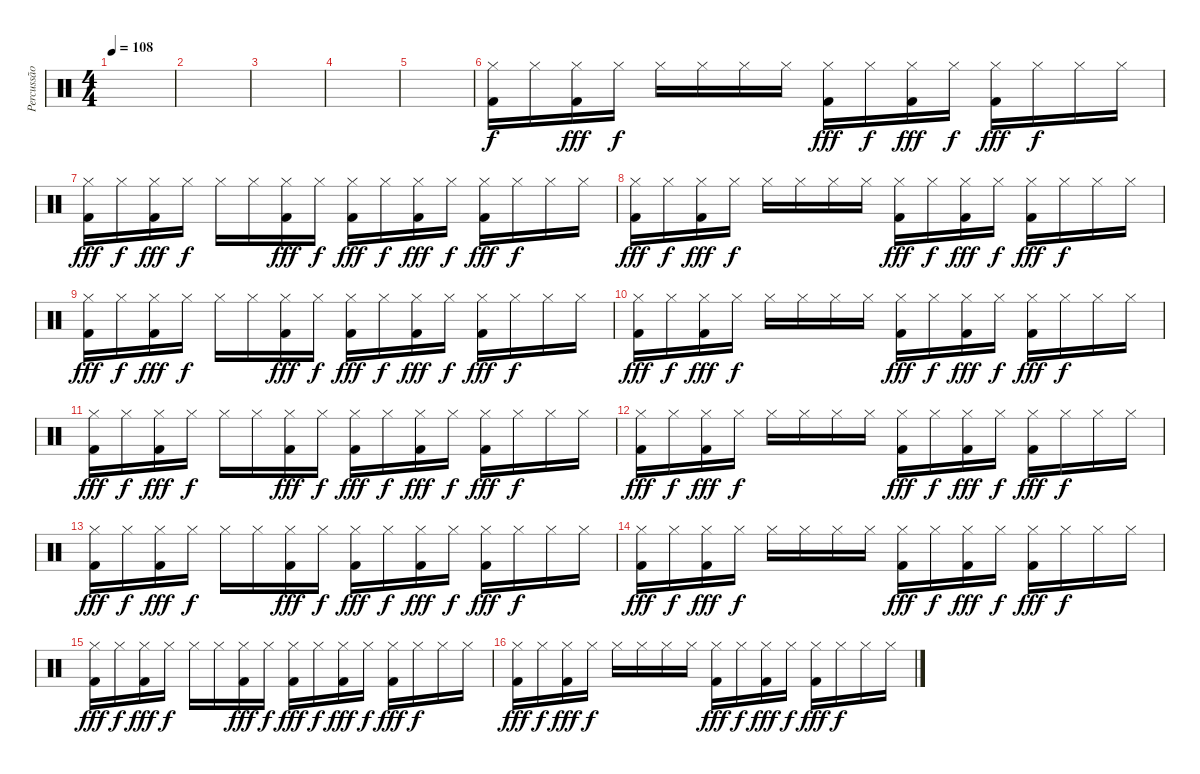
\track ("Percussão" "Percussão") {instrument percussion}
\staff {score}
\articulation defaults
\ts (4 4)
\tempo 108
\clef neutral
\ks c
|
|
|
|
|
("Hi-Hat (closed)" "Kick (hit) 2").16 "Hi-Hat (closed)".16{dy f} ("Hi-Hat (closed)" "Kick (hit) 2").16{dy fff} "Hi-Hat (closed)".16{dy f} "Hi-Hat (closed)".16 "Hi-Hat (closed)".16 "Hi-Hat (closed)".16 "Hi-Hat (closed)".16 ("Hi-Hat (closed)" "Kick (hit) 2").16{dy fff} "Hi-Hat (closed)".16{dy f} ("Hi-Hat (closed)" "Kick (hit) 2").16{dy fff} "Hi-Hat (closed)".16{dy f} ("Hi-Hat (closed)" "Kick (hit) 2").16{dy fff} "Hi-Hat (closed)".16{dy f} "Hi-Hat (closed)".16 "Hi-Hat (closed)".16 |
("Hi-Hat (closed)" "Kick (hit) 2").16{dy fff} "Hi-Hat (closed)".16{dy f} ("Hi-Hat (closed)" "Kick (hit) 2").16{dy fff} "Hi-Hat (closed)".16{dy f} "Hi-Hat (closed)".16 "Hi-Hat (closed)".16 ("Hi-Hat (closed)" "Kick (hit) 2").16{dy fff} "Hi-Hat (closed)".16{dy f} ("Hi-Hat (closed)" "Kick (hit) 2").16{dy fff} "Hi-Hat (closed)".16{dy f} ("Hi-Hat (closed)" "Kick (hit) 2").16{dy fff} "Hi-Hat (closed)".16{dy f} ("Hi-Hat (closed)" "Kick (hit) 2").16{dy fff} "Hi-Hat (closed)".16{dy f} "Hi-Hat (closed)".16 "Hi-Hat (closed)".16 |
("Hi-Hat (closed)" "Kick (hit) 2").16{dy fff} "Hi-Hat (closed)".16{dy f} ("Hi-Hat (closed)" "Kick (hit) 2").16{dy fff} "Hi-Hat (closed)".16{dy f} "Hi-Hat (closed)".16 "Hi-Hat (closed)".16 "Hi-Hat (closed)".16 "Hi-Hat (closed)".16 ("Hi-Hat (closed)" "Kick (hit) 2").16{dy fff} "Hi-Hat (closed)".16{dy f} ("Hi-Hat (closed)" "Kick (hit) 2").16{dy fff} "Hi-Hat (closed)".16{dy f} ("Hi-Hat (closed)" "Kick (hit) 2").16{dy fff} "Hi-Hat (closed)".16{dy f} "Hi-Hat (closed)".16 "Hi-Hat (closed)".16 |
("Hi-Hat (closed)" "Kick (hit) 2").16{dy fff} "Hi-Hat (closed)".16{dy f} ("Hi-Hat (closed)" "Kick (hit) 2").16{dy fff} "Hi-Hat (closed)".16{dy f} "Hi-Hat (closed)".16 "Hi-Hat (closed)".16 ("Hi-Hat (closed)" "Kick (hit) 2").16{dy fff} "Hi-Hat (closed)".16{dy f} ("Hi-Hat (closed)" "Kick (hit) 2").16{dy fff} "Hi-Hat (closed)".16{dy f} ("Hi-Hat (closed)" "Kick (hit) 2").16{dy fff} "Hi-Hat (closed)".16{dy f} ("Hi-Hat (closed)" "Kick (hit) 2").16{dy fff} "Hi-Hat (closed)".16{dy f} "Hi-Hat (closed)".16 "Hi-Hat (closed)".16 |
("Hi-Hat (closed)" "Kick (hit) 2").16{dy fff} "Hi-Hat (closed)".16{dy f} ("Hi-Hat (closed)" "Kick (hit) 2").16{dy fff} "Hi-Hat (closed)".16{dy f} "Hi-Hat (closed)".16 "Hi-Hat (closed)".16 "Hi-Hat (closed)".16 "Hi-Hat (closed)".16 ("Hi-Hat (closed)" "Kick (hit) 2").16{dy fff} "Hi-Hat (closed)".16{dy f} ("Hi-Hat (closed)" "Kick (hit) 2").16{dy fff} "Hi-Hat (closed)".16{dy f} ("Hi-Hat (closed)" "Kick (hit) 2").16{dy fff} "Hi-Hat (closed)".16{dy f} "Hi-Hat (closed)".16 "Hi-Hat (closed)".16 |
("Hi-Hat (closed)" "Kick (hit) 2").16{dy fff} "Hi-Hat (closed)".16{dy f} ("Hi-Hat (closed)" "Kick (hit) 2").16{dy fff} "Hi-Hat (closed)".16{dy f} "Hi-Hat (closed)".16 "Hi-Hat (closed)".16 ("Hi-Hat (closed)" "Kick (hit) 2").16{dy fff} "Hi-Hat (closed)".16{dy f} ("Hi-Hat (closed)" "Kick (hit) 2").16{dy fff} "Hi-Hat (closed)".16{dy f} ("Hi-Hat (closed)" "Kick (hit) 2").16{dy fff} "Hi-Hat (closed)".16{dy f} ("Hi-Hat (closed)" "Kick (hit) 2").16{dy fff} "Hi-Hat (closed)".16{dy f} "Hi-Hat (closed)".16 "Hi-Hat (closed)".16 |
("Hi-Hat (closed)" "Kick (hit) 2").16{dy fff} "Hi-Hat (closed)".16{dy f} ("Hi-Hat (closed)" "Kick (hit) 2").16{dy fff} "Hi-Hat (closed)".16{dy f} "Hi-Hat (closed)".16 "Hi-Hat (closed)".16 "Hi-Hat (closed)".16 "Hi-Hat (closed)".16 ("Hi-Hat (closed)" "Kick (hit) 2").16{dy fff} "Hi-Hat (closed)".16{dy f} ("Hi-Hat (closed)" "Kick (hit) 2").16{dy fff} "Hi-Hat (closed)".16{dy f} ("Hi-Hat (closed)" "Kick (hit) 2").16{dy fff} "Hi-Hat (closed)".16{dy f} "Hi-Hat (closed)".16 "Hi-Hat (closed)".16 |
("Hi-Hat (closed)" "Kick (hit) 2").16{dy fff} "Hi-Hat (closed)".16{dy f} ("Hi-Hat (closed)" "Kick (hit) 2").16{dy fff} "Hi-Hat (closed)".16{dy f} "Hi-Hat (closed)".16 "Hi-Hat (closed)".16 ("Hi-Hat (closed)" "Kick (hit) 2").16{dy fff} "Hi-Hat (closed)".16{dy f} ("Hi-Hat (closed)" "Kick (hit) 2").16{dy fff} "Hi-Hat (closed)".16{dy f} ("Hi-Hat (closed)" "Kick (hit) 2").16{dy fff} "Hi-Hat (closed)".16{dy f} ("Hi-Hat (closed)" "Kick (hit) 2").16{dy fff} "Hi-Hat (closed)".16{dy f} "Hi-Hat (closed)".16 "Hi-Hat (closed)".16 |
("Hi-Hat (closed)" "Kick (hit) 2").16{dy fff} "Hi-Hat (closed)".16{dy f} ("Hi-Hat (closed)" "Kick (hit) 2").16{dy fff} "Hi-Hat (closed)".16{dy f} "Hi-Hat (closed)".16 "Hi-Hat (closed)".16 "Hi-Hat (closed)".16 "Hi-Hat (closed)".16 ("Hi-Hat (closed)" "Kick (hit) 2").16{dy fff} "Hi-Hat (closed)".16{dy f} ("Hi-Hat (closed)" "Kick (hit) 2").16{dy fff} "Hi-Hat (closed)".16{dy f} ("Hi-Hat (closed)" "Kick (hit) 2").16{dy fff} "Hi-Hat (closed)".16{dy f} "Hi-Hat (closed)".16 "Hi-Hat (closed)".16 |
("Hi-Hat (closed)" "Kick (hit) 2").16{dy fff} "Hi-Hat (closed)".16{dy f} ("Hi-Hat (closed)" "Kick (hit) 2").16{dy fff} "Hi-Hat (closed)".16{dy f} "Hi-Hat (closed)".16 "Hi-Hat (closed)".16 ("Hi-Hat (closed)" "Kick (hit) 2").16{dy fff} "Hi-Hat (closed)".16{dy f} ("Hi-Hat (closed)" "Kick (hit) 2").16{dy fff} "Hi-Hat (closed)".16{dy f} ("Hi-Hat (closed)" "Kick (hit) 2").16{dy fff} "Hi-Hat (closed)".16{dy f} ("Hi-Hat (closed)" "Kick (hit) 2").16{dy fff} "Hi-Hat (closed)".16{dy f} "Hi-Hat (closed)".16 "Hi-Hat (closed)".16 |
("Hi-Hat (closed)" "Kick (hit) 2").16{dy fff} "Hi-Hat (closed)".16{dy f} ("Hi-Hat (closed)" "Kick (hit) 2").16{dy fff} "Hi-Hat (closed)".16{dy f} "Hi-Hat (closed)".16 "Hi-Hat (closed)".16 "Hi-Hat (closed)".16 "Hi-Hat (closed)".16 ("Hi-Hat (closed)" "Kick (hit) 2").16{dy fff} "Hi-Hat (closed)".16{dy f} ("Hi-Hat (closed)" "Kick (hit) 2").16{dy fff} "Hi-Hat (closed)".16{dy f} ("Hi-Hat (closed)" "Kick (hit) 2").16{dy fff} "Hi-Hat (closed)".16{dy f} "Hi-Hat (closed)".16 "Hi-Hat (closed)".16
